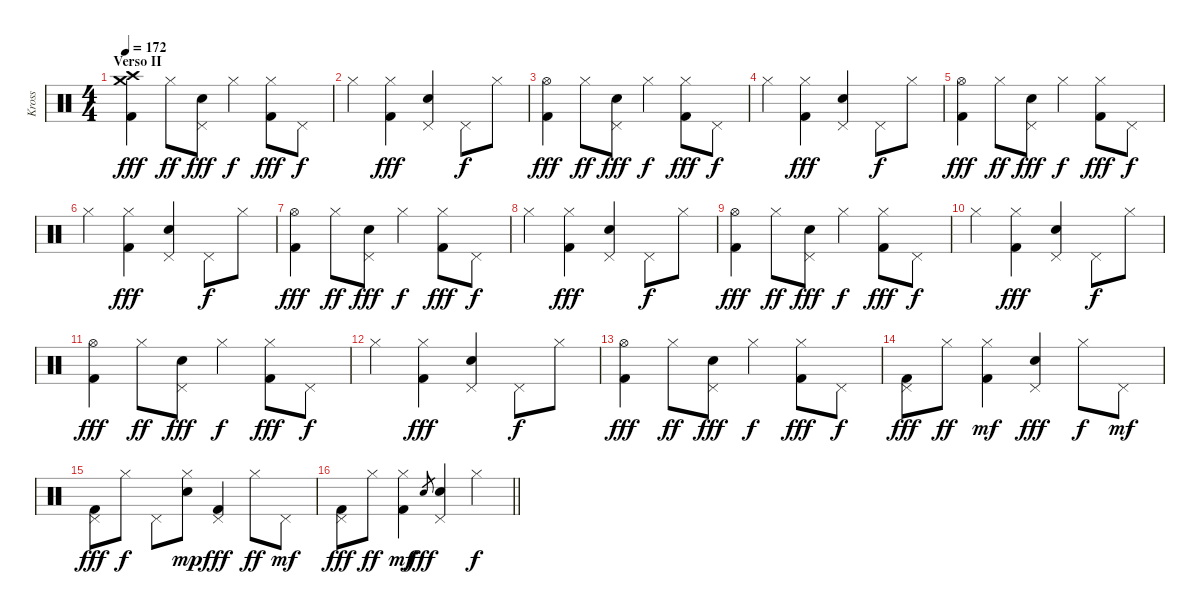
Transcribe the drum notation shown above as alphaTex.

\track ("Kross" "Kross") {instrument percussion}
\staff {score}
\articulation defaults
\ts (4 4)
\section ("" "Verso II")
\tempo 172
\clef neutral
\ks c
("Crash high (hit)" "Crash medium (hit)" "Kick (hit) 2").4{dy fff} "Hi-Hat (closed)".8{dy ff} ("Pedal Hi-Hat (hit)" "Snare (hit) 2").8{dy fff} "Hi-Hat (closed)".4{dy f} ("Hi-Hat (closed)" "Kick (hit) 2").8{dy fff} "Pedal Hi-Hat (hit)".8{dy f} |
"Hi-Hat (closed)".4 ("Hi-Hat (closed)" "Kick (hit) 2").4{dy fff} ("Pedal Hi-Hat (hit)" "Snare (hit) 2").4 "Pedal Hi-Hat (hit)".8{dy f} "Hi-Hat (closed)".8 |
("Hi-Hat (open)" "Kick (hit) 2").4{dy fff} "Hi-Hat (closed)".8{dy ff} ("Pedal Hi-Hat (hit)" "Snare (hit) 2").8{dy fff} "Hi-Hat (closed)".4{dy f} ("Hi-Hat (closed)" "Kick (hit) 2").8{dy fff} "Pedal Hi-Hat (hit)".8{dy f} |
"Hi-Hat (closed)".4 ("Hi-Hat (closed)" "Kick (hit) 2").4{dy fff} ("Pedal Hi-Hat (hit)" "Snare (hit) 2").4 "Pedal Hi-Hat (hit)".8{dy f} "Hi-Hat (closed)".8 |
("Hi-Hat (open)" "Kick (hit) 2").4{dy fff} "Hi-Hat (closed)".8{dy ff} ("Pedal Hi-Hat (hit)" "Snare (hit) 2").8{dy fff} "Hi-Hat (closed)".4{dy f} ("Hi-Hat (closed)" "Kick (hit) 2").8{dy fff} "Pedal Hi-Hat (hit)".8{dy f} |
"Hi-Hat (closed)".4 ("Hi-Hat (closed)" "Kick (hit) 2").4{dy fff} ("Pedal Hi-Hat (hit)" "Snare (hit) 2").4 "Pedal Hi-Hat (hit)".8{dy f} "Hi-Hat (closed)".8 |
("Hi-Hat (open)" "Kick (hit) 2").4{dy fff} "Hi-Hat (closed)".8{dy ff} ("Pedal Hi-Hat (hit)" "Snare (hit) 2").8{dy fff} "Hi-Hat (closed)".4{dy f} ("Hi-Hat (closed)" "Kick (hit) 2").8{dy fff} "Pedal Hi-Hat (hit)".8{dy f} |
"Hi-Hat (closed)".4 ("Hi-Hat (closed)" "Kick (hit) 2").4{dy fff} ("Pedal Hi-Hat (hit)" "Snare (hit) 2").4 "Pedal Hi-Hat (hit)".8{dy f} "Hi-Hat (closed)".8 |
("Hi-Hat (open)" "Kick (hit) 2").4{dy fff} "Hi-Hat (closed)".8{dy ff} ("Pedal Hi-Hat (hit)" "Snare (hit) 2").8{dy fff} "Hi-Hat (closed)".4{dy f} ("Hi-Hat (closed)" "Kick (hit) 2").8{dy fff} "Pedal Hi-Hat (hit)".8{dy f} |
"Hi-Hat (closed)".4 ("Hi-Hat (closed)" "Kick (hit) 2").4{dy fff} ("Pedal Hi-Hat (hit)" "Snare (hit) 2").4 "Pedal Hi-Hat (hit)".8{dy f} "Hi-Hat (closed)".8 |
("Hi-Hat (open)" "Kick (hit) 2").4{dy fff} "Hi-Hat (closed)".8{dy ff} ("Pedal Hi-Hat (hit)" "Snare (hit) 2").8{dy fff} "Hi-Hat (closed)".4{dy f} ("Hi-Hat (closed)" "Kick (hit) 2").8{dy fff} "Pedal Hi-Hat (hit)".8{dy f} |
"Hi-Hat (closed)".4 ("Hi-Hat (closed)" "Kick (hit) 2").4{dy fff} ("Pedal Hi-Hat (hit)" "Snare (hit) 2").4 "Pedal Hi-Hat (hit)".8{dy f} "Hi-Hat (closed)".8 |
("Hi-Hat (open)" "Kick (hit) 2").4{dy fff} "Hi-Hat (closed)".8{dy ff} ("Pedal Hi-Hat (hit)" "Snare (hit) 2").8{dy fff} "Hi-Hat (closed)".4{dy f} ("Hi-Hat (closed)" "Kick (hit) 2").8{dy fff} "Pedal Hi-Hat (hit)".8{dy f} |
("Pedal Hi-Hat (hit)" "Kick (hit) 2").8{dy fff} "Hi-Hat (closed)".8{dy ff} ("Hi-Hat (closed)" "Kick (hit) 2").4{dy mf} ("Pedal Hi-Hat (hit)" "Snare (hit) 2").4{dy fff} "Hi-Hat (closed)".8{dy f} "Pedal Hi-Hat (hit)".8{dy mf} |
("Pedal Hi-Hat (hit)" "Kick (hit) 2").8{dy fff} "Hi-Hat (closed)".8{dy f} "Pedal Hi-Hat (hit)".8 ("Hi-Hat (closed)" "Snare (hit) 2").8{dy mp} ("Pedal Hi-Hat (hit)" "Kick (hit) 2").4{dy fff} "Hi-Hat (closed)".8{dy ff} "Pedal Hi-Hat (hit)".8{dy mf} |
\barLineRight lightlight
("Pedal Hi-Hat (hit)" "Kick (hit) 2").8{dy fff} "Hi-Hat (closed)".8{dy ff} ("Hi-Hat (closed)" "Kick (hit) 2").4{dy mf} "Electric Snare (hit)".8{gr dy fff} ("Pedal Hi-Hat (hit)" "Electric Snare (hit)").4 "Hi-Hat (closed)".4{dy f}
